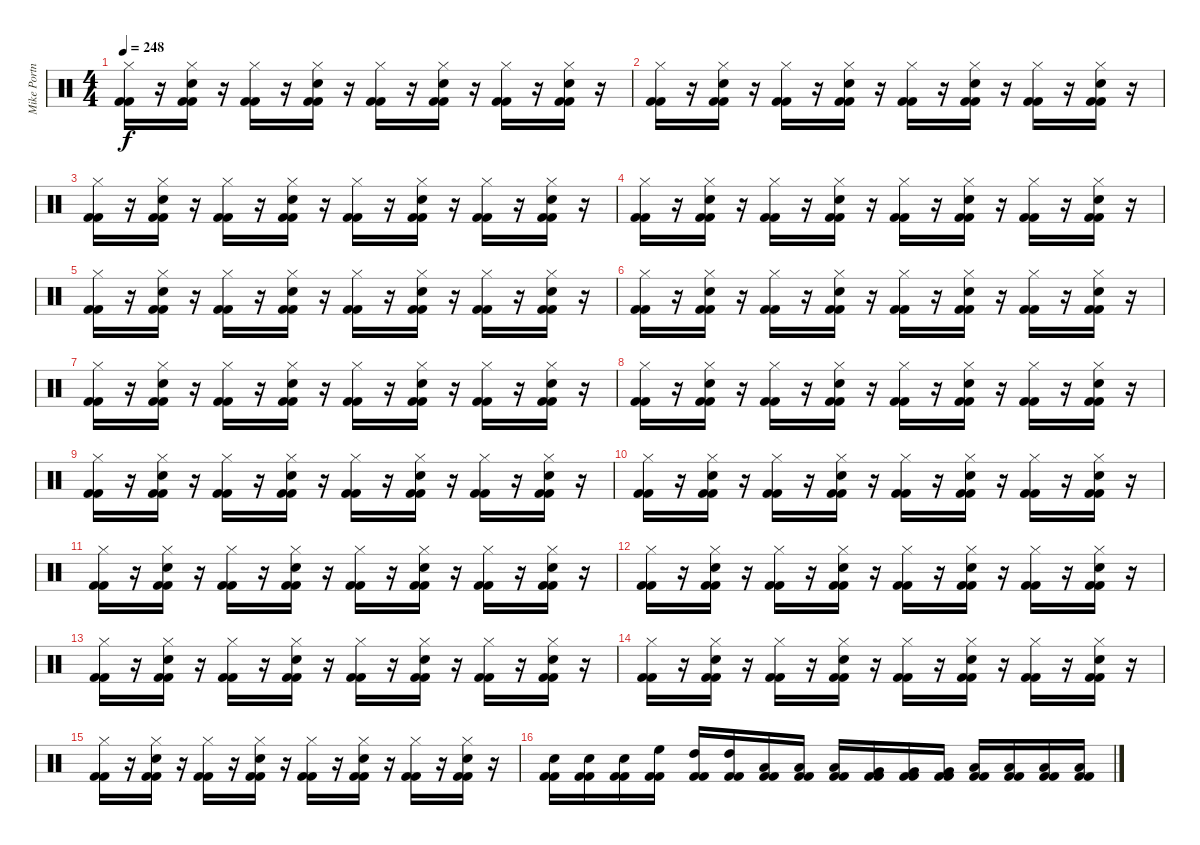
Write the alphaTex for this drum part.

\track ("Mike Portnoy - Drum" "Mike Portn") {instrument percussion}
\staff {score}
\articulation defaults
\ts (4 4)
\tempo 248
\clef neutral
\ks c
("Hi-Hat (closed)" "Kick (hit) 2" "Kick (hit) 2").16{dy f} r.16 ("Hi-Hat (closed)" "Snare (hit) 2" "Kick (hit) 2" "Kick (hit) 2").16 r.16 ("Hi-Hat (closed)" "Kick (hit) 2" "Kick (hit) 2").16 r.16 ("Hi-Hat (closed)" "Snare (hit) 2" "Kick (hit) 2" "Kick (hit) 2").16 r.16 ("Hi-Hat (closed)" "Kick (hit) 2" "Kick (hit) 2").16 r.16 ("Hi-Hat (closed)" "Snare (hit) 2" "Kick (hit) 2" "Kick (hit) 2").16 r.16 ("Hi-Hat (closed)" "Kick (hit) 2" "Kick (hit) 2").16 r.16 ("Hi-Hat (closed)" "Snare (hit) 2" "Kick (hit) 2" "Kick (hit) 2").16 r.16 |
("Hi-Hat (closed)" "Kick (hit) 2" "Kick (hit) 2").16 r.16 ("Hi-Hat (closed)" "Snare (hit) 2" "Kick (hit) 2" "Kick (hit) 2").16 r.16 ("Hi-Hat (closed)" "Kick (hit) 2" "Kick (hit) 2").16 r.16 ("Hi-Hat (closed)" "Snare (hit) 2" "Kick (hit) 2" "Kick (hit) 2").16 r.16 ("Hi-Hat (closed)" "Kick (hit) 2" "Kick (hit) 2").16 r.16 ("Hi-Hat (closed)" "Snare (hit) 2" "Kick (hit) 2" "Kick (hit) 2").16 r.16 ("Hi-Hat (closed)" "Kick (hit) 2" "Kick (hit) 2").16 r.16 ("Hi-Hat (closed)" "Snare (hit) 2" "Kick (hit) 2" "Kick (hit) 2").16 r.16 |
("Hi-Hat (closed)" "Kick (hit) 2" "Kick (hit) 2").16 r.16 ("Hi-Hat (closed)" "Snare (hit) 2" "Kick (hit) 2" "Kick (hit) 2").16 r.16 ("Hi-Hat (closed)" "Kick (hit) 2" "Kick (hit) 2").16 r.16 ("Hi-Hat (closed)" "Snare (hit) 2" "Kick (hit) 2" "Kick (hit) 2").16 r.16 ("Hi-Hat (closed)" "Kick (hit) 2" "Kick (hit) 2").16 r.16 ("Hi-Hat (closed)" "Snare (hit) 2" "Kick (hit) 2" "Kick (hit) 2").16 r.16 ("Hi-Hat (closed)" "Kick (hit) 2" "Kick (hit) 2").16 r.16 ("Hi-Hat (closed)" "Snare (hit) 2" "Kick (hit) 2" "Kick (hit) 2").16 r.16 |
("Hi-Hat (closed)" "Kick (hit) 2" "Kick (hit) 2").16 r.16 ("Hi-Hat (closed)" "Snare (hit) 2" "Kick (hit) 2" "Kick (hit) 2").16 r.16 ("Hi-Hat (closed)" "Kick (hit) 2" "Kick (hit) 2").16 r.16 ("Hi-Hat (closed)" "Snare (hit) 2" "Kick (hit) 2" "Kick (hit) 2").16 r.16 ("Hi-Hat (closed)" "Kick (hit) 2" "Kick (hit) 2").16 r.16 ("Hi-Hat (closed)" "Snare (hit) 2" "Kick (hit) 2" "Kick (hit) 2").16 r.16 ("Hi-Hat (closed)" "Kick (hit) 2" "Kick (hit) 2").16 r.16 ("Hi-Hat (closed)" "Snare (hit) 2" "Kick (hit) 2" "Kick (hit) 2").16 r.16 |
("Hi-Hat (closed)" "Kick (hit) 2" "Kick (hit) 2").16 r.16 ("Hi-Hat (closed)" "Snare (hit) 2" "Kick (hit) 2" "Kick (hit) 2").16 r.16 ("Hi-Hat (closed)" "Kick (hit) 2" "Kick (hit) 2").16 r.16 ("Hi-Hat (closed)" "Snare (hit) 2" "Kick (hit) 2" "Kick (hit) 2").16 r.16 ("Hi-Hat (closed)" "Kick (hit) 2" "Kick (hit) 2").16 r.16 ("Hi-Hat (closed)" "Snare (hit) 2" "Kick (hit) 2" "Kick (hit) 2").16 r.16 ("Hi-Hat (closed)" "Kick (hit) 2" "Kick (hit) 2").16 r.16 ("Hi-Hat (closed)" "Snare (hit) 2" "Kick (hit) 2" "Kick (hit) 2").16 r.16 |
("Hi-Hat (closed)" "Kick (hit) 2" "Kick (hit) 2").16 r.16 ("Hi-Hat (closed)" "Snare (hit) 2" "Kick (hit) 2" "Kick (hit) 2").16 r.16 ("Hi-Hat (closed)" "Kick (hit) 2" "Kick (hit) 2").16 r.16 ("Hi-Hat (closed)" "Snare (hit) 2" "Kick (hit) 2" "Kick (hit) 2").16 r.16 ("Hi-Hat (closed)" "Kick (hit) 2" "Kick (hit) 2").16 r.16 ("Hi-Hat (closed)" "Snare (hit) 2" "Kick (hit) 2" "Kick (hit) 2").16 r.16 ("Hi-Hat (closed)" "Kick (hit) 2" "Kick (hit) 2").16 r.16 ("Hi-Hat (closed)" "Snare (hit) 2" "Kick (hit) 2" "Kick (hit) 2").16 r.16 |
("Hi-Hat (closed)" "Kick (hit) 2" "Kick (hit) 2").16 r.16 ("Hi-Hat (closed)" "Snare (hit) 2" "Kick (hit) 2" "Kick (hit) 2").16 r.16 ("Hi-Hat (closed)" "Kick (hit) 2" "Kick (hit) 2").16 r.16 ("Hi-Hat (closed)" "Snare (hit) 2" "Kick (hit) 2" "Kick (hit) 2").16 r.16 ("Hi-Hat (closed)" "Kick (hit) 2" "Kick (hit) 2").16 r.16 ("Hi-Hat (closed)" "Snare (hit) 2" "Kick (hit) 2" "Kick (hit) 2").16 r.16 ("Hi-Hat (closed)" "Kick (hit) 2" "Kick (hit) 2").16 r.16 ("Hi-Hat (closed)" "Snare (hit) 2" "Kick (hit) 2" "Kick (hit) 2").16 r.16 |
("Hi-Hat (closed)" "Kick (hit) 2" "Kick (hit) 2").16 r.16 ("Hi-Hat (closed)" "Snare (hit) 2" "Kick (hit) 2" "Kick (hit) 2").16 r.16 ("Hi-Hat (closed)" "Kick (hit) 2" "Kick (hit) 2").16 r.16 ("Hi-Hat (closed)" "Snare (hit) 2" "Kick (hit) 2" "Kick (hit) 2").16 r.16 ("Hi-Hat (closed)" "Kick (hit) 2" "Kick (hit) 2").16 r.16 ("Hi-Hat (closed)" "Snare (hit) 2" "Kick (hit) 2" "Kick (hit) 2").16 r.16 ("Hi-Hat (closed)" "Kick (hit) 2" "Kick (hit) 2").16 r.16 ("Hi-Hat (closed)" "Snare (hit) 2" "Kick (hit) 2" "Kick (hit) 2").16 r.16 |
("Hi-Hat (closed)" "Kick (hit) 2" "Kick (hit) 2").16 r.16 ("Hi-Hat (closed)" "Snare (hit) 2" "Kick (hit) 2" "Kick (hit) 2").16 r.16 ("Hi-Hat (closed)" "Kick (hit) 2" "Kick (hit) 2").16 r.16 ("Hi-Hat (closed)" "Snare (hit) 2" "Kick (hit) 2" "Kick (hit) 2").16 r.16 ("Hi-Hat (closed)" "Kick (hit) 2" "Kick (hit) 2").16 r.16 ("Hi-Hat (closed)" "Snare (hit) 2" "Kick (hit) 2" "Kick (hit) 2").16 r.16 ("Hi-Hat (closed)" "Kick (hit) 2" "Kick (hit) 2").16 r.16 ("Hi-Hat (closed)" "Snare (hit) 2" "Kick (hit) 2" "Kick (hit) 2").16 r.16 |
("Hi-Hat (closed)" "Kick (hit) 2" "Kick (hit) 2").16 r.16 ("Hi-Hat (closed)" "Snare (hit) 2" "Kick (hit) 2" "Kick (hit) 2").16 r.16 ("Hi-Hat (closed)" "Kick (hit) 2" "Kick (hit) 2").16 r.16 ("Hi-Hat (closed)" "Snare (hit) 2" "Kick (hit) 2" "Kick (hit) 2").16 r.16 ("Hi-Hat (closed)" "Kick (hit) 2" "Kick (hit) 2").16 r.16 ("Hi-Hat (closed)" "Snare (hit) 2" "Kick (hit) 2" "Kick (hit) 2").16 r.16 ("Hi-Hat (closed)" "Kick (hit) 2" "Kick (hit) 2").16 r.16 ("Hi-Hat (closed)" "Snare (hit) 2" "Kick (hit) 2" "Kick (hit) 2").16 r.16 |
("Hi-Hat (closed)" "Kick (hit) 2" "Kick (hit) 2").16 r.16 ("Hi-Hat (closed)" "Snare (hit) 2" "Kick (hit) 2" "Kick (hit) 2").16 r.16 ("Hi-Hat (closed)" "Kick (hit) 2" "Kick (hit) 2").16 r.16 ("Hi-Hat (closed)" "Snare (hit) 2" "Kick (hit) 2" "Kick (hit) 2").16 r.16 ("Hi-Hat (closed)" "Kick (hit) 2" "Kick (hit) 2").16 r.16 ("Hi-Hat (closed)" "Snare (hit) 2" "Kick (hit) 2" "Kick (hit) 2").16 r.16 ("Hi-Hat (closed)" "Kick (hit) 2" "Kick (hit) 2").16 r.16 ("Hi-Hat (closed)" "Snare (hit) 2" "Kick (hit) 2" "Kick (hit) 2").16 r.16 |
("Hi-Hat (closed)" "Kick (hit) 2" "Kick (hit) 2").16 r.16 ("Hi-Hat (closed)" "Snare (hit) 2" "Kick (hit) 2" "Kick (hit) 2").16 r.16 ("Hi-Hat (closed)" "Kick (hit) 2" "Kick (hit) 2").16 r.16 ("Hi-Hat (closed)" "Snare (hit) 2" "Kick (hit) 2" "Kick (hit) 2").16 r.16 ("Hi-Hat (closed)" "Kick (hit) 2" "Kick (hit) 2").16 r.16 ("Hi-Hat (closed)" "Snare (hit) 2" "Kick (hit) 2" "Kick (hit) 2").16 r.16 ("Hi-Hat (closed)" "Kick (hit) 2" "Kick (hit) 2").16 r.16 ("Hi-Hat (closed)" "Snare (hit) 2" "Kick (hit) 2" "Kick (hit) 2").16 r.16 |
("Hi-Hat (closed)" "Kick (hit) 2" "Kick (hit) 2").16 r.16 ("Hi-Hat (closed)" "Snare (hit) 2" "Kick (hit) 2" "Kick (hit) 2").16 r.16 ("Hi-Hat (closed)" "Kick (hit) 2" "Kick (hit) 2").16 r.16 ("Hi-Hat (closed)" "Snare (hit) 2" "Kick (hit) 2" "Kick (hit) 2").16 r.16 ("Hi-Hat (closed)" "Kick (hit) 2" "Kick (hit) 2").16 r.16 ("Hi-Hat (closed)" "Snare (hit) 2" "Kick (hit) 2" "Kick (hit) 2").16 r.16 ("Hi-Hat (closed)" "Kick (hit) 2" "Kick (hit) 2").16 r.16 ("Hi-Hat (closed)" "Snare (hit) 2" "Kick (hit) 2" "Kick (hit) 2").16 r.16 |
("Hi-Hat (closed)" "Kick (hit) 2" "Kick (hit) 2").16 r.16 ("Hi-Hat (closed)" "Snare (hit) 2" "Kick (hit) 2" "Kick (hit) 2").16 r.16 ("Hi-Hat (closed)" "Kick (hit) 2" "Kick (hit) 2").16 r.16 ("Hi-Hat (closed)" "Snare (hit) 2" "Kick (hit) 2" "Kick (hit) 2").16 r.16 ("Hi-Hat (closed)" "Kick (hit) 2" "Kick (hit) 2").16 r.16 ("Hi-Hat (closed)" "Snare (hit) 2" "Kick (hit) 2" "Kick (hit) 2").16 r.16 ("Hi-Hat (closed)" "Kick (hit) 2" "Kick (hit) 2").16 r.16 ("Hi-Hat (closed)" "Snare (hit) 2" "Kick (hit) 2" "Kick (hit) 2").16 r.16 |
("Hi-Hat (closed)" "Kick (hit) 2" "Kick (hit) 2").16 r.16 ("Hi-Hat (closed)" "Snare (hit) 2" "Kick (hit) 2" "Kick (hit) 2").16 r.16 ("Hi-Hat (closed)" "Kick (hit) 2" "Kick (hit) 2").16 r.16 ("Hi-Hat (closed)" "Snare (hit) 2" "Kick (hit) 2" "Kick (hit) 2").16 r.16 ("Hi-Hat (closed)" "Kick (hit) 2" "Kick (hit) 2").16 r.16 ("Hi-Hat (closed)" "Snare (hit) 2" "Kick (hit) 2" "Kick (hit) 2").16 r.16 ("Hi-Hat (closed)" "Kick (hit) 2" "Kick (hit) 2").16 r.16 ("Hi-Hat (closed)" "Snare (hit) 2" "Kick (hit) 2" "Kick (hit) 2").16 r.16 |
("Snare (hit) 2" "Kick (hit) 2" "Kick (hit) 2").16 ("Snare (hit) 2" "Kick (hit) 2" "Kick (hit) 2").16 ("Snare (hit) 2" "Kick (hit) 2" "Kick (hit) 2").16 ("High Floor Tom (hit)" "Kick (hit) 2" "Kick (hit) 2").16 ("High Tom (hit)" "Kick (hit) 2" "Kick (hit) 2").16 ("High Tom (hit)" "Kick (hit) 2" "Kick (hit) 2").16 ("Low Tom (hit)" "Kick (hit) 2" "Kick (hit) 2").16 ("Low Tom (hit)" "Kick (hit) 2" "Kick (hit) 2").16 ("Low Tom (hit)" "Kick (hit) 2" "Kick (hit) 2").16 ("Very Low Tom (hit)" "Kick (hit) 2" "Kick (hit) 2").16 ("Very Low Tom (hit)" "Kick (hit) 2" "Kick (hit) 2").16 ("Very Low Tom (hit)" "Kick (hit) 2" "Kick (hit) 2").16 ("Low Floor Tom (hit)" "Kick (hit) 2" "Kick (hit) 2").16 ("Low Floor Tom (hit)" "Kick (hit) 2" "Kick (hit) 2").16 ("Low Floor Tom (hit)" "Kick (hit) 2" "Kick (hit) 2").16 ("Low Floor Tom (hit)" "Kick (hit) 2" "Kick (hit) 2").16
